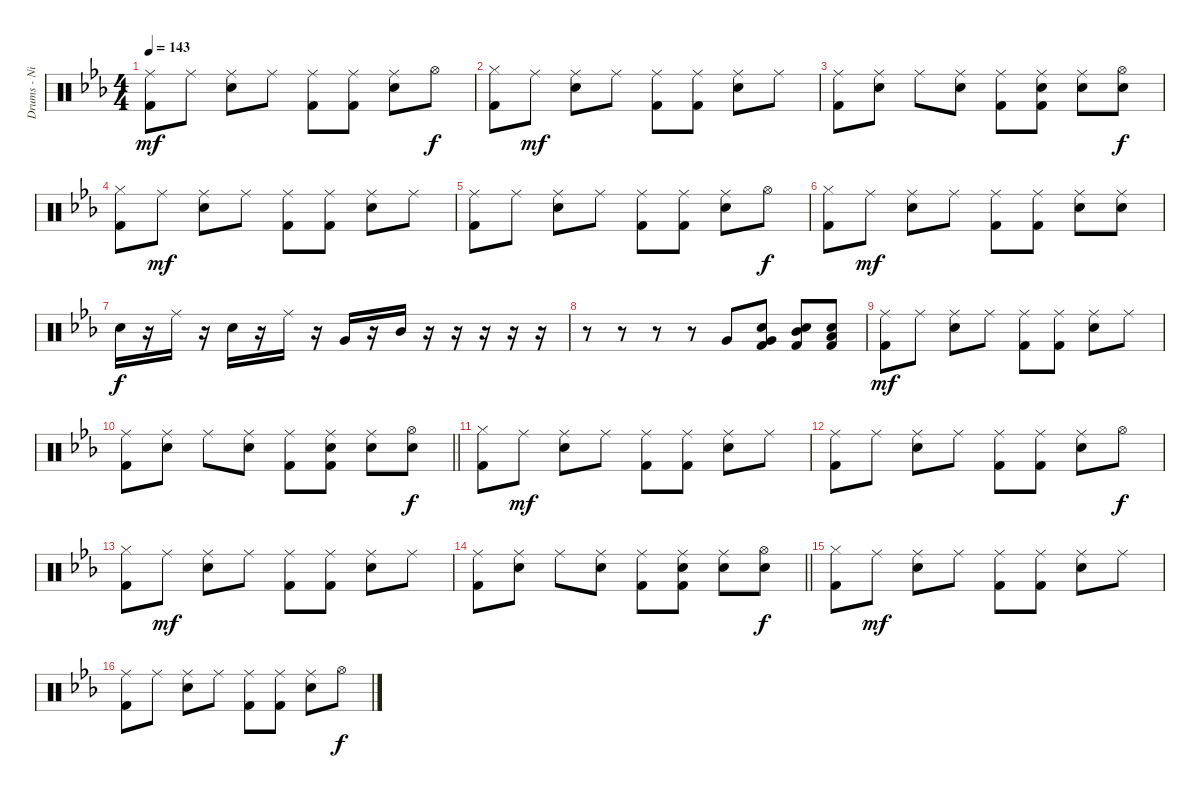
\track ("Drums - Nigel Olsen" "Drums - Ni") {instrument percussion}
\staff {score}
\articulation defaults
\ts (4 4)
\tempo 143
\clef neutral
\ks cminor
("Ride (middle)" "Kick (hit) 2").8{dy mf} "Ride (middle)".8 ("Ride (middle)" "Snare (hit) 2").8 "Ride (middle)".8 ("Ride (middle)" "Kick (hit) 2").8 ("Ride (middle)" "Kick (hit) 2").8 ("Ride (middle)" "Snare (hit) 2").8 "Hi-Hat (open)".8{dy f} |
("Hi-Hat (closed)" "Kick (hit) 2").8 "Ride (middle)".8{dy mf} ("Ride (middle)" "Snare (hit) 2").8 "Ride (middle)".8 ("Ride (middle)" "Kick (hit) 2").8 ("Ride (middle)" "Kick (hit) 2").8 ("Ride (middle)" "Snare (hit) 2").8 "Ride (middle)".8 |
("Ride (middle)" "Kick (hit) 2").8 ("Ride (middle)" "Snare (hit) 2").8 "Ride (middle)".8 ("Ride (middle)" "Snare (hit) 2").8 ("Ride (middle)" "Kick (hit) 2").8 ("Ride (middle)" "Snare (hit) 2" "Kick (hit) 2").8 ("Ride (middle)" "Snare (hit) 2").8 ("Hi-Hat (open)" "Snare (hit) 2").8{dy f} |
("Hi-Hat (closed)" "Kick (hit) 2").8 "Ride (middle)".8{dy mf} ("Ride (middle)" "Snare (hit) 2").8 "Ride (middle)".8 ("Ride (middle)" "Kick (hit) 2").8 ("Ride (middle)" "Kick (hit) 2").8 ("Ride (middle)" "Snare (hit) 2").8 "Ride (middle)".8 |
("Ride (middle)" "Kick (hit) 2").8 "Ride (middle)".8 ("Ride (middle)" "Snare (hit) 2").8 "Ride (middle)".8 ("Ride (middle)" "Kick (hit) 2").8 ("Ride (middle)" "Kick (hit) 2").8 ("Ride (middle)" "Snare (hit) 2").8 "Hi-Hat (open)".8{dy f} |
("Hi-Hat (closed)" "Kick (hit) 2").8 "Ride (middle)".8{dy mf} ("Ride (middle)" "Snare (hit) 2").8 "Ride (middle)".8 ("Ride (middle)" "Kick (hit) 2").8 ("Ride (middle)" "Kick (hit) 2").8 ("Ride (middle)" "Snare (hit) 2").8 ("Ride (middle)" "Snare (hit) 2").8 |
"Snare (hit) 2".16{dy f} r.16 "Ride (middle)".16 r.16 "Snare (hit) 2".16 r.16 "Ride (middle)".16 r.16 "Very Low Tom (hit)".16 r.16 "Mid Tom (hit)".16 r.16 r.16 r.16 r.16 r.16 |
r.8 r.8 r.8 r.8 "Very Low Tom (hit)".8 ("Very Low Tom (hit)" "Snare (hit) 2" "Kick (hit) 2").8 ("Mid Tom (hit)" "Snare (hit) 2" "Kick (hit) 2").8 ("Low Tom (hit)" "Snare (hit) 2" "Kick (hit) 2").8 |
("Ride (middle)" "Kick (hit) 2").8{dy mf} "Ride (middle)".8 ("Ride (middle)" "Snare (hit) 2").8 "Ride (middle)".8 ("Ride (middle)" "Kick (hit) 2").8 ("Ride (middle)" "Kick (hit) 2").8 ("Ride (middle)" "Snare (hit) 2").8 "Ride (middle)".8 |
\barLineRight lightlight
("Ride (middle)" "Kick (hit) 2").8 ("Ride (middle)" "Snare (hit) 2").8 "Ride (middle)".8 ("Ride (middle)" "Snare (hit) 2").8 ("Ride (middle)" "Kick (hit) 2").8 ("Ride (middle)" "Snare (hit) 2" "Kick (hit) 2").8 ("Ride (middle)" "Snare (hit) 2").8 ("Hi-Hat (open)" "Snare (hit) 2").8{dy f} |
("Hi-Hat (closed)" "Kick (hit) 2").8 "Ride (middle)".8{dy mf} ("Ride (middle)" "Snare (hit) 2").8 "Ride (middle)".8 ("Ride (middle)" "Kick (hit) 2").8 ("Ride (middle)" "Kick (hit) 2").8 ("Ride (middle)" "Snare (hit) 2").8 "Ride (middle)".8 |
("Ride (middle)" "Kick (hit) 2").8 "Ride (middle)".8 ("Ride (middle)" "Snare (hit) 2").8 "Ride (middle)".8 ("Ride (middle)" "Kick (hit) 2").8 ("Ride (middle)" "Kick (hit) 2").8 ("Ride (middle)" "Snare (hit) 2").8 "Hi-Hat (open)".8{dy f} |
("Hi-Hat (closed)" "Kick (hit) 2").8 "Ride (middle)".8{dy mf} ("Ride (middle)" "Snare (hit) 2").8 "Ride (middle)".8 ("Ride (middle)" "Kick (hit) 2").8 ("Ride (middle)" "Kick (hit) 2").8 ("Ride (middle)" "Snare (hit) 2").8 "Ride (middle)".8 |
\barLineRight lightlight
("Ride (middle)" "Kick (hit) 2").8 ("Ride (middle)" "Snare (hit) 2").8 "Ride (middle)".8 ("Ride (middle)" "Snare (hit) 2").8 ("Ride (middle)" "Kick (hit) 2").8 ("Ride (middle)" "Snare (hit) 2" "Kick (hit) 2").8 ("Ride (middle)" "Snare (hit) 2").8 ("Hi-Hat (open)" "Snare (hit) 2").8{dy f} |
("Hi-Hat (closed)" "Kick (hit) 2").8 "Ride (middle)".8{dy mf} ("Ride (middle)" "Snare (hit) 2").8 "Ride (middle)".8 ("Ride (middle)" "Kick (hit) 2").8 ("Ride (middle)" "Kick (hit) 2").8 ("Ride (middle)" "Snare (hit) 2").8 "Ride (middle)".8 |
("Ride (middle)" "Kick (hit) 2").8 "Ride (middle)".8 ("Ride (middle)" "Snare (hit) 2").8 "Ride (middle)".8 ("Ride (middle)" "Kick (hit) 2").8 ("Ride (middle)" "Kick (hit) 2").8 ("Ride (middle)" "Snare (hit) 2").8 "Hi-Hat (open)".8{dy f}
